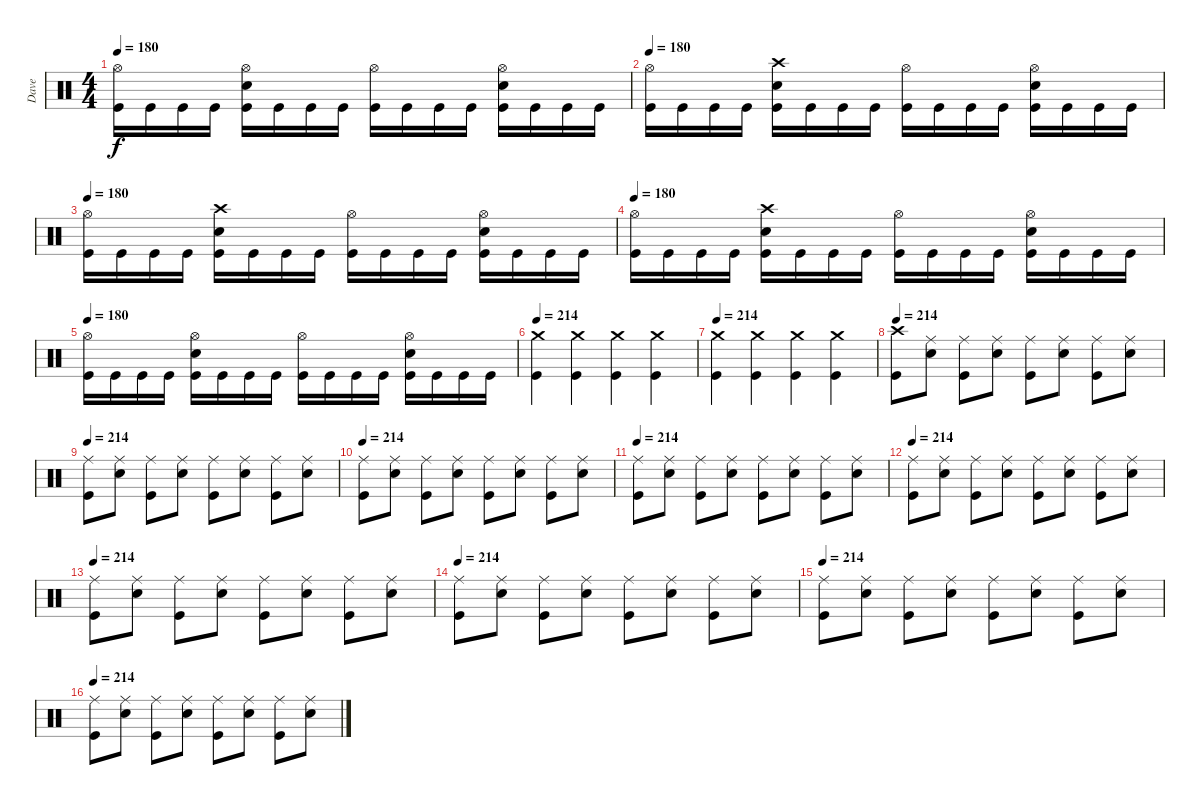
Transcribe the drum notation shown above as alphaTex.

\track ("Dave" "Dave") {instrument percussion}
\staff {score}
\articulation defaults
\ts (4 4)
\tempo 180
\clef neutral
\ks c
("Hi-Hat (open)" "Kick (hit)").16{dy f} "Kick (hit)".16 "Kick (hit)".16 "Kick (hit)".16 ("Hi-Hat (open)" "Snare (hit) 2" "Kick (hit)").16 "Kick (hit)".16 "Kick (hit)".16 "Kick (hit)".16 ("Hi-Hat (open)" "Kick (hit)").16 "Kick (hit)".16 "Kick (hit)".16 "Kick (hit)".16 ("Hi-Hat (open)" "Snare (hit) 2" "Kick (hit)").16 "Kick (hit)".16 "Kick (hit)".16 "Kick (hit)".16 |
\tempo 180
("Hi-Hat (open)" "Kick (hit)").16 "Kick (hit)".16 "Kick (hit)".16 "Kick (hit)".16 ("Crash high (hit)" "Snare (hit) 2" "Kick (hit)").16 "Kick (hit)".16 "Kick (hit)".16 "Kick (hit)".16 ("Hi-Hat (open)" "Kick (hit)").16 "Kick (hit)".16 "Kick (hit)".16 "Kick (hit)".16 ("Hi-Hat (open)" "Snare (hit) 2" "Kick (hit)").16 "Kick (hit)".16 "Kick (hit)".16 "Kick (hit)".16 |
\tempo 180
("Hi-Hat (open)" "Kick (hit)").16 "Kick (hit)".16 "Kick (hit)".16 "Kick (hit)".16 ("Crash high (hit)" "Snare (hit) 2" "Kick (hit)").16 "Kick (hit)".16 "Kick (hit)".16 "Kick (hit)".16 ("Hi-Hat (open)" "Kick (hit)").16 "Kick (hit)".16 "Kick (hit)".16 "Kick (hit)".16 ("Hi-Hat (open)" "Snare (hit) 2" "Kick (hit)").16 "Kick (hit)".16 "Kick (hit)".16 "Kick (hit)".16 |
\tempo 180
("Hi-Hat (open)" "Kick (hit)").16 "Kick (hit)".16 "Kick (hit)".16 "Kick (hit)".16 ("Crash high (hit)" "Snare (hit) 2" "Kick (hit)").16 "Kick (hit)".16 "Kick (hit)".16 "Kick (hit)".16 ("Hi-Hat (open)" "Kick (hit)").16 "Kick (hit)".16 "Kick (hit)".16 "Kick (hit)".16 ("Hi-Hat (open)" "Snare (hit) 2" "Kick (hit)").16 "Kick (hit)".16 "Kick (hit)".16 "Kick (hit)".16 |
\tempo 180
("Hi-Hat (open)" "Kick (hit)").16 "Kick (hit)".16 "Kick (hit)".16 "Kick (hit)".16 ("Hi-Hat (open)" "Snare (hit) 2" "Kick (hit)").16 "Kick (hit)".16 "Kick (hit)".16 "Kick (hit)".16 ("Hi-Hat (open)" "Kick (hit)").16 "Kick (hit)".16 "Kick (hit)".16 "Kick (hit)".16 ("Hi-Hat (open)" "Snare (hit) 2" "Kick (hit)").16 "Kick (hit)".16 "Kick (hit)".16 "Kick (hit)".16 |
\tempo 214
("Crash medium (hit)" "Kick (hit)").4 ("Crash medium (hit)" "Kick (hit)").4 ("Crash medium (hit)" "Kick (hit)").4 ("Crash medium (hit)" "Kick (hit)").4 |
\tempo 214
("Crash medium (hit)" "Kick (hit)").4 ("Crash medium (hit)" "Kick (hit)").4 ("Crash medium (hit)" "Kick (hit)").4 ("Crash medium (hit)" "Kick (hit)").4 |
\tempo 214
("Crash high (hit)" "Kick (hit)").8 ("Ride (middle)" "Snare (hit) 2").8 ("Ride (middle)" "Kick (hit)").8 ("Ride (middle)" "Snare (hit) 2").8 ("Ride (middle)" "Kick (hit)").8 ("Ride (middle)" "Snare (hit) 2").8 ("Ride (middle)" "Kick (hit)").8 ("Ride (middle)" "Snare (hit) 2").8 |
\tempo 214
("Ride (middle)" "Kick (hit)").8 ("Ride (middle)" "Snare (hit) 2").8 ("Ride (middle)" "Kick (hit)").8 ("Ride (middle)" "Snare (hit) 2").8 ("Ride (middle)" "Kick (hit)").8 ("Ride (middle)" "Snare (hit) 2").8 ("Ride (middle)" "Kick (hit)").8 ("Ride (middle)" "Snare (hit) 2").8 |
\tempo 214
("Ride (middle)" "Kick (hit)").8 ("Ride (middle)" "Snare (hit) 2").8 ("Ride (middle)" "Kick (hit)").8 ("Ride (middle)" "Snare (hit) 2").8 ("Ride (middle)" "Kick (hit)").8 ("Ride (middle)" "Snare (hit) 2").8 ("Ride (middle)" "Kick (hit)").8 ("Ride (middle)" "Snare (hit) 2").8 |
\tempo 214
("Ride (middle)" "Kick (hit)").8 ("Ride (middle)" "Snare (hit) 2").8 ("Ride (middle)" "Kick (hit)").8 ("Ride (middle)" "Snare (hit) 2").8 ("Ride (middle)" "Kick (hit)").8 ("Ride (middle)" "Snare (hit) 2").8 ("Ride (middle)" "Kick (hit)").8 ("Ride (middle)" "Snare (hit) 2").8 |
\tempo 214
("Ride (middle)" "Kick (hit)").8 ("Ride (middle)" "Snare (hit) 2").8 ("Ride (middle)" "Kick (hit)").8 ("Ride (middle)" "Snare (hit) 2").8 ("Ride (middle)" "Kick (hit)").8 ("Ride (middle)" "Snare (hit) 2").8 ("Ride (middle)" "Kick (hit)").8 ("Ride (middle)" "Snare (hit) 2").8 |
\tempo 214
("Ride (middle)" "Kick (hit)").8 ("Ride (middle)" "Snare (hit) 2").8 ("Ride (middle)" "Kick (hit)").8 ("Ride (middle)" "Snare (hit) 2").8 ("Ride (middle)" "Kick (hit)").8 ("Ride (middle)" "Snare (hit) 2").8 ("Ride (middle)" "Kick (hit)").8 ("Ride (middle)" "Snare (hit) 2").8 |
\tempo 214
("Ride (middle)" "Kick (hit)").8 ("Ride (middle)" "Snare (hit) 2").8 ("Ride (middle)" "Kick (hit)").8 ("Ride (middle)" "Snare (hit) 2").8 ("Ride (middle)" "Kick (hit)").8 ("Ride (middle)" "Snare (hit) 2").8 ("Ride (middle)" "Kick (hit)").8 ("Ride (middle)" "Snare (hit) 2").8 |
\tempo 214
("Ride (middle)" "Kick (hit)").8 ("Ride (middle)" "Snare (hit) 2").8 ("Ride (middle)" "Kick (hit)").8 ("Ride (middle)" "Snare (hit) 2").8 ("Ride (middle)" "Kick (hit)").8 ("Ride (middle)" "Snare (hit) 2").8 ("Ride (middle)" "Kick (hit)").8 ("Ride (middle)" "Snare (hit) 2").8 |
\tempo 214
("Ride (middle)" "Kick (hit)").8 ("Ride (middle)" "Snare (hit) 2").8 ("Ride (middle)" "Kick (hit)").8 ("Ride (middle)" "Snare (hit) 2").8 ("Ride (middle)" "Kick (hit)").8 ("Ride (middle)" "Snare (hit) 2").8 ("Ride (middle)" "Kick (hit)").8 ("Ride (middle)" "Snare (hit) 2").8
